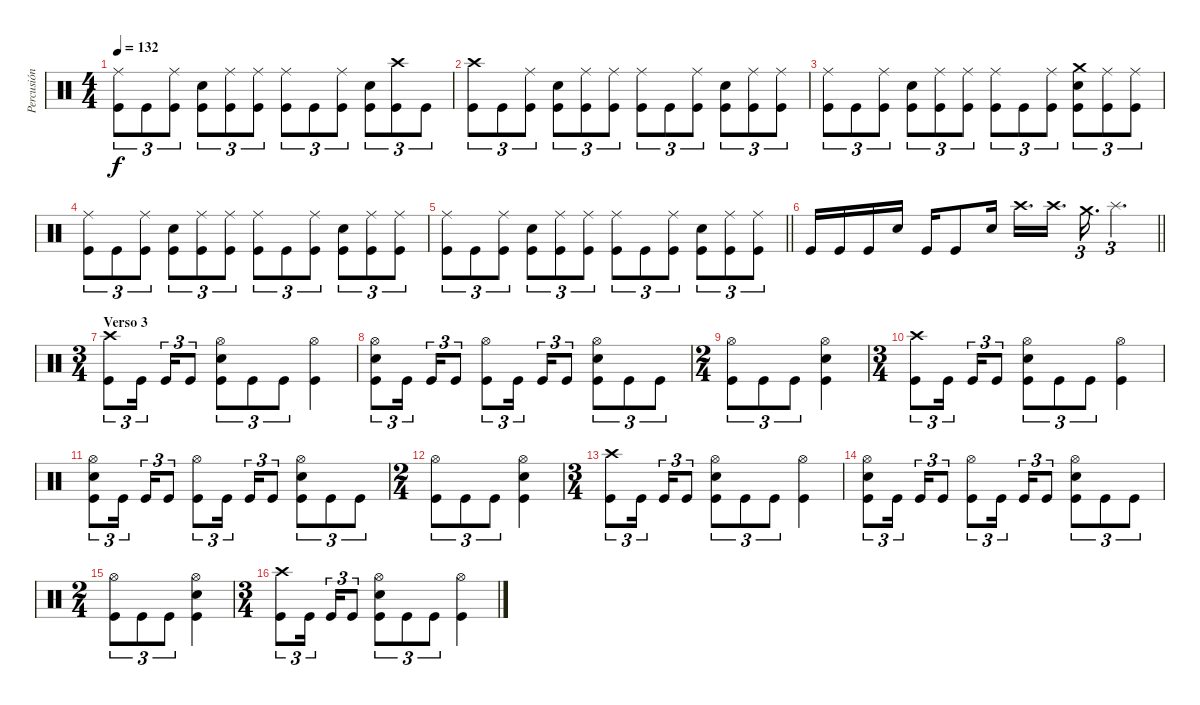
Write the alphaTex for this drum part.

\track ("Percusión" "Percusión") {instrument percussion}
\staff
\articulation defaults
\ts (4 4)
\tempo 132
\clef neutral
\ks c
("Kick (hit)" "Ride (middle)").8{tu (3 2) dy f} "Kick (hit)".8{tu (3 2)} ("Kick (hit)" "Ride (middle)").8{tu (3 2)} ("Kick (hit)" "Electric Snare (hit)").8{tu (3 2)} ("Kick (hit)" "Ride (middle)").8{tu (3 2)} ("Kick (hit)" "Ride (middle)").8{tu (3 2)} ("Kick (hit)" "Ride (middle)").8{tu (3 2)} "Kick (hit)".8{tu (3 2)} ("Kick (hit)" "Ride (middle)").8{tu (3 2)} ("Kick (hit)" "Electric Snare (hit)").8{tu (3 2)} ("Kick (hit)" "Crash high (hit)").8{tu (3 2)} "Kick (hit)".8{tu (3 2)} |
("Kick (hit)" "Crash high (hit)").8{tu (3 2)} "Kick (hit)".8{tu (3 2)} ("Kick (hit)" "Ride (middle)").8{tu (3 2)} ("Kick (hit)" "Electric Snare (hit)").8{tu (3 2)} ("Kick (hit)" "Ride (middle)").8{tu (3 2)} ("Kick (hit)" "Ride (middle)").8{tu (3 2)} ("Kick (hit)" "Ride (middle)").8{tu (3 2)} "Kick (hit)".8{tu (3 2)} ("Kick (hit)" "Ride (middle)").8{tu (3 2)} ("Kick (hit)" "Electric Snare (hit)").8{tu (3 2)} ("Kick (hit)" "Ride (middle)").8{tu (3 2)} ("Kick (hit)" "Ride (middle)").8{tu (3 2)} |
("Kick (hit)" "Ride (middle)").8{tu (3 2)} "Kick (hit)".8{tu (3 2)} ("Kick (hit)" "Ride (middle)").8{tu (3 2)} ("Kick (hit)" "Electric Snare (hit)").8{tu (3 2)} ("Kick (hit)" "Ride (middle)").8{tu (3 2)} ("Kick (hit)" "Ride (middle)").8{tu (3 2)} ("Kick (hit)" "Ride (middle)").8{tu (3 2)} "Kick (hit)".8{tu (3 2)} ("Kick (hit)" "Ride (middle)").8{tu (3 2)} ("Kick (hit)" "Electric Snare (hit)" "Crash medium (hit)").8{tu (3 2)} ("Kick (hit)" "Ride (middle)").8{tu (3 2)} ("Kick (hit)" "Ride (middle)").8{tu (3 2)} |
("Kick (hit)" "Ride (middle)").8{tu (3 2)} "Kick (hit)".8{tu (3 2)} ("Kick (hit)" "Ride (middle)").8{tu (3 2)} ("Kick (hit)" "Electric Snare (hit)").8{tu (3 2)} ("Kick (hit)" "Ride (middle)").8{tu (3 2)} ("Kick (hit)" "Ride (middle)").8{tu (3 2)} ("Kick (hit)" "Ride (middle)").8{tu (3 2)} "Kick (hit)".8{tu (3 2)} ("Kick (hit)" "Ride (middle)").8{tu (3 2)} ("Kick (hit)" "Electric Snare (hit)").8{tu (3 2)} ("Kick (hit)" "Ride (middle)").8{tu (3 2)} ("Kick (hit)" "Ride (middle)").8{tu (3 2)} |
\barLineRight lightlight
("Kick (hit)" "Ride (middle)").8{tu (3 2)} "Kick (hit)".8{tu (3 2)} ("Kick (hit)" "Ride (middle)").8{tu (3 2)} ("Kick (hit)" "Electric Snare (hit)").8{tu (3 2)} ("Kick (hit)" "Ride (middle)").8{tu (3 2)} ("Kick (hit)" "Ride (middle)").8{tu (3 2)} ("Kick (hit)" "Ride (middle)").8{tu (3 2)} "Kick (hit)".8{tu (3 2)} ("Kick (hit)" "Ride (middle)").8{tu (3 2)} ("Kick (hit)" "Electric Snare (hit)").8{tu (3 2)} ("Kick (hit)" "Ride (middle)").8{tu (3 2)} ("Kick (hit)" "Ride (middle)").8{tu (3 2)} |
\barLineRight lightlight "Kick (hit)".16 "Kick (hit)".16 "Kick (hit)".16 "Electric Snare (hit)".16 "Kick (hit)".16 "Kick (hit)".8 "Electric Snare (hit)".16 "Crash high (hit)".16{d} "Crash high (hit)".16{d beam splitsecondary} "Crash medium (hit)".16{d tu (3 2)} "Splash (hit)".4{d tu (3 2)}
|
\ts (3 4)
\section ("" "Verso 3")
("Kick (hit)" "Crash high (hit)").8{tu (3 2)} "Kick (hit)".16{tu (3 2) beam splitsecondary} "Kick (hit)".16{tu (3 2)} "Kick (hit)".8{tu (3 2)} ("Kick (hit)" "Hi-Hat (open)" "Electric Snare (hit)").8{tu (3 2)} "Kick (hit)".8{tu (3 2)} "Kick (hit)".8{tu (3 2)} ("Kick (hit)" "Hi-Hat (open)").4 |
("Kick (hit)" "Hi-Hat (open)" "Electric Snare (hit)").8{tu (3 2)} "Kick (hit)".16{tu (3 2) beam splitsecondary} "Kick (hit)".16{tu (3 2)} "Kick (hit)".8{tu (3 2)} ("Kick (hit)" "Hi-Hat (open)").8{tu (3 2)} "Kick (hit)".16{tu (3 2) beam splitsecondary} "Kick (hit)".16{tu (3 2)} "Kick (hit)".8{tu (3 2)} ("Kick (hit)" "Hi-Hat (open)" "Electric Snare (hit)").8{tu (3 2)} "Kick (hit)".8{tu (3 2)} "Kick (hit)".8{tu (3 2)} |
\ts (2 4)
("Kick (hit)" "Hi-Hat (open)").8{tu (3 2)} "Kick (hit)".8{tu (3 2)} "Kick (hit)".8{tu (3 2)} ("Kick (hit)" "Hi-Hat (open)" "Electric Snare (hit)").4 |
\ts (3 4)
("Kick (hit)" "Crash high (hit)").8{tu (3 2)} "Kick (hit)".16{tu (3 2) beam splitsecondary} "Kick (hit)".16{tu (3 2)} "Kick (hit)".8{tu (3 2)} ("Kick (hit)" "Hi-Hat (open)" "Electric Snare (hit)").8{tu (3 2)} "Kick (hit)".8{tu (3 2)} "Kick (hit)".8{tu (3 2)} ("Kick (hit)" "Hi-Hat (open)").4 |
("Kick (hit)" "Hi-Hat (open)" "Electric Snare (hit)").8{tu (3 2)} "Kick (hit)".16{tu (3 2) beam splitsecondary} "Kick (hit)".16{tu (3 2)} "Kick (hit)".8{tu (3 2)} ("Kick (hit)" "Hi-Hat (open)").8{tu (3 2)} "Kick (hit)".16{tu (3 2) beam splitsecondary} "Kick (hit)".16{tu (3 2)} "Kick (hit)".8{tu (3 2)} ("Kick (hit)" "Hi-Hat (open)" "Electric Snare (hit)").8{tu (3 2)} "Kick (hit)".8{tu (3 2)} "Kick (hit)".8{tu (3 2)} |
\ts (2 4)
("Kick (hit)" "Hi-Hat (open)").8{tu (3 2)} "Kick (hit)".8{tu (3 2)} "Kick (hit)".8{tu (3 2)} ("Kick (hit)" "Hi-Hat (open)" "Electric Snare (hit)").4 |
\ts (3 4)
("Kick (hit)" "Crash high (hit)").8{tu (3 2)} "Kick (hit)".16{tu (3 2) beam splitsecondary} "Kick (hit)".16{tu (3 2)} "Kick (hit)".8{tu (3 2)} ("Kick (hit)" "Hi-Hat (open)" "Electric Snare (hit)").8{tu (3 2)} "Kick (hit)".8{tu (3 2)} "Kick (hit)".8{tu (3 2)} ("Kick (hit)" "Hi-Hat (open)").4 |
("Kick (hit)" "Hi-Hat (open)" "Electric Snare (hit)").8{tu (3 2)} "Kick (hit)".16{tu (3 2) beam splitsecondary} "Kick (hit)".16{tu (3 2)} "Kick (hit)".8{tu (3 2)} ("Kick (hit)" "Hi-Hat (open)").8{tu (3 2)} "Kick (hit)".16{tu (3 2) beam splitsecondary} "Kick (hit)".16{tu (3 2)} "Kick (hit)".8{tu (3 2)} ("Kick (hit)" "Hi-Hat (open)" "Electric Snare (hit)").8{tu (3 2)} "Kick (hit)".8{tu (3 2)} "Kick (hit)".8{tu (3 2)} |
\ts (2 4)
("Kick (hit)" "Hi-Hat (open)").8{tu (3 2)} "Kick (hit)".8{tu (3 2)} "Kick (hit)".8{tu (3 2)} ("Kick (hit)" "Hi-Hat (open)" "Electric Snare (hit)").4 |
\ts (3 4)
("Kick (hit)" "Crash high (hit)").8{tu (3 2)} "Kick (hit)".16{tu (3 2) beam splitsecondary} "Kick (hit)".16{tu (3 2)} "Kick (hit)".8{tu (3 2)} ("Kick (hit)" "Hi-Hat (open)" "Electric Snare (hit)").8{tu (3 2)} "Kick (hit)".8{tu (3 2)} "Kick (hit)".8{tu (3 2)} ("Kick (hit)" "Hi-Hat (open)").4
